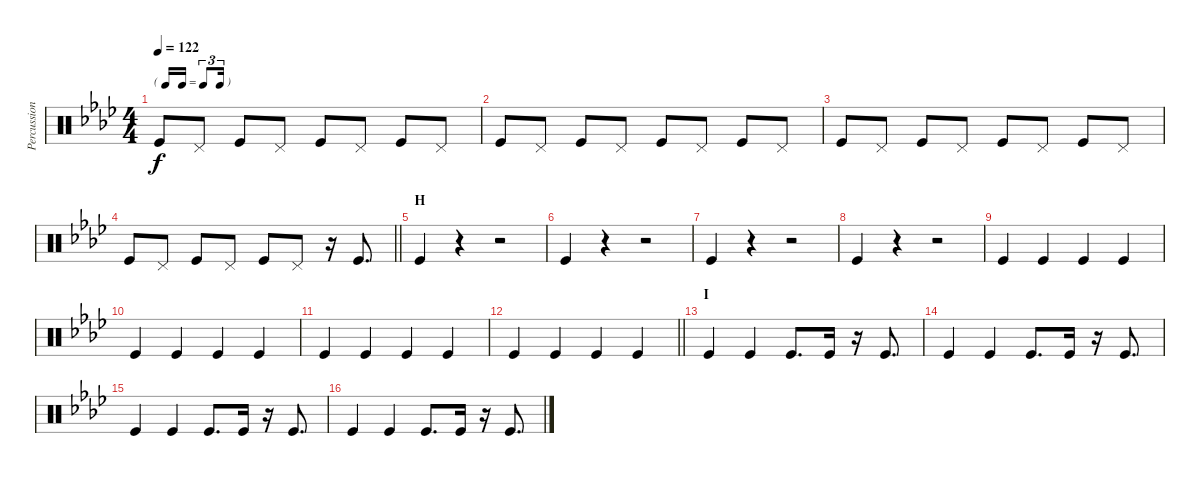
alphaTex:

\track ("Percussion Foot" "Percussion") {instrument percussion}
\staff {score}
\articulation defaults
\ts (4 4)
\tf triplet16th
\tempo 122
\clef neutral
\ks ab "Kick (hit)".8{dy f} "Pedal Hi-Hat (hit)".8 "Kick (hit)".8 "Pedal Hi-Hat (hit)".8 "Kick (hit)".8 "Pedal Hi-Hat (hit)".8 "Kick (hit)".8 "Pedal Hi-Hat (hit)".8
|
"Kick (hit)".8 "Pedal Hi-Hat (hit)".8 "Kick (hit)".8 "Pedal Hi-Hat (hit)".8 "Kick (hit)".8 "Pedal Hi-Hat (hit)".8 "Kick (hit)".8 "Pedal Hi-Hat (hit)".8 |
"Kick (hit)".8 "Pedal Hi-Hat (hit)".8 "Kick (hit)".8 "Pedal Hi-Hat (hit)".8 "Kick (hit)".8 "Pedal Hi-Hat (hit)".8 "Kick (hit)".8 "Pedal Hi-Hat (hit)".8 |
\barLineRight lightlight "Kick (hit)".8 "Pedal Hi-Hat (hit)".8 "Kick (hit)".8 "Pedal Hi-Hat (hit)".8 "Kick (hit)".8 "Pedal Hi-Hat (hit)".8
r.16 "Kick (hit)".8{d} |
\section ("" "H")
"Kick (hit)".4 r.4 r.2 |
"Kick (hit)".4 r.4 r.2 |
"Kick (hit)".4 r.4 r.2 |
"Kick (hit)".4 r.4 r.2 |
"Kick (hit)".4 "Kick (hit)".4 "Kick (hit)".4 "Kick (hit)".4 |
"Kick (hit)".4 "Kick (hit)".4 "Kick (hit)".4 "Kick (hit)".4 |
"Kick (hit)".4 "Kick (hit)".4 "Kick (hit)".4 "Kick (hit)".4 |
\barLineRight lightlight "Kick (hit)".4 "Kick (hit)".4 "Kick (hit)".4 "Kick (hit)".4
|
\section ("" "I")
"Kick (hit)".4 "Kick (hit)".4 "Kick (hit)".8{d} "Kick (hit)".16 r.16 "Kick (hit)".8{d} |
"Kick (hit)".4 "Kick (hit)".4 "Kick (hit)".8{d} "Kick (hit)".16 r.16 "Kick (hit)".8{d} |
"Kick (hit)".4 "Kick (hit)".4 "Kick (hit)".8{d} "Kick (hit)".16 r.16 "Kick (hit)".8{d} |
"Kick (hit)".4 "Kick (hit)".4 "Kick (hit)".8{d} "Kick (hit)".16 r.16 "Kick (hit)".8{d}
